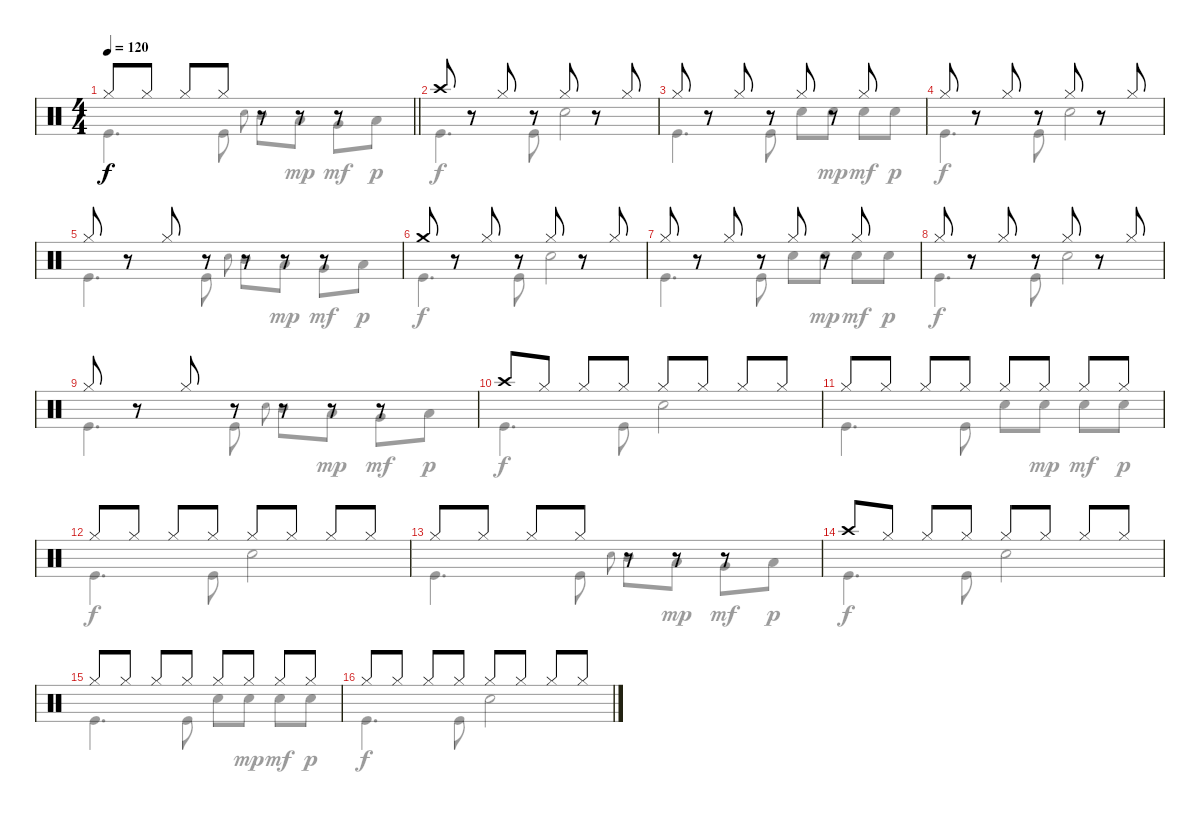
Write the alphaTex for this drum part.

\track "" {instrument percussion}
\staff {score}
\articulation defaults
\voice
\ts (4 4)
\tempo 120
\clef neutral
\barLineRight lightlight
\ks c "Hi-Hat (closed)".8{dy f} "Hi-Hat (closed)".8 "Hi-Hat (closed)".8 "Hi-Hat (closed)".8
r.8 r.8 r.8 |
"Crash high (hit)".8 r.8 "Hi-Hat (closed)".8 r.8 "Hi-Hat (closed)".8 r.8 "Hi-Hat (closed)".8 |
"Hi-Hat (closed)".8 r.8 "Hi-Hat (closed)".8 r.8 "Hi-Hat (closed)".8 r.8 "Hi-Hat (closed)".8 |
"Hi-Hat (closed)".8 r.8 "Hi-Hat (closed)".8 r.8 "Hi-Hat (closed)".8 r.8 "Hi-Hat (closed)".8 |
"Hi-Hat (closed)".8 r.8 "Hi-Hat (closed)".8 r.8 r.8 r.8 r.8 |
"Crash medium (hit)".8 r.8 "Hi-Hat (closed)".8 r.8 "Hi-Hat (closed)".8 r.8 "Hi-Hat (closed)".8 |
"Hi-Hat (closed)".8 r.8 "Hi-Hat (closed)".8 r.8 "Hi-Hat (closed)".8 r.8 "Hi-Hat (closed)".8 |
"Hi-Hat (closed)".8 r.8 "Hi-Hat (closed)".8 r.8 "Hi-Hat (closed)".8 r.8 "Hi-Hat (closed)".8 |
"Hi-Hat (closed)".8 r.8 "Hi-Hat (closed)".8 r.8 r.8 r.8 r.8 |
"Crash high (hit)".8 "Hi-Hat (closed)".8 "Hi-Hat (closed)".8 "Hi-Hat (closed)".8 "Hi-Hat (closed)".8 "Hi-Hat (closed)".8 "Hi-Hat (closed)".8 "Hi-Hat (closed)".8 |
"Hi-Hat (closed)".8 "Hi-Hat (closed)".8 "Hi-Hat (closed)".8 "Hi-Hat (closed)".8 "Hi-Hat (closed)".8 "Hi-Hat (closed)".8 "Hi-Hat (closed)".8 "Hi-Hat (closed)".8 |
"Hi-Hat (closed)".8 "Hi-Hat (closed)".8 "Hi-Hat (closed)".8 "Hi-Hat (closed)".8 "Hi-Hat (closed)".8 "Hi-Hat (closed)".8 "Hi-Hat (closed)".8 "Hi-Hat (closed)".8 |
"Hi-Hat (closed)".8 "Hi-Hat (closed)".8 "Hi-Hat (closed)".8 "Hi-Hat (closed)".8 r.8 r.8 r.8 |
"Crash high (hit)".8 "Hi-Hat (closed)".8 "Hi-Hat (closed)".8 "Hi-Hat (closed)".8 "Hi-Hat (closed)".8 "Hi-Hat (closed)".8 "Hi-Hat (closed)".8 "Hi-Hat (closed)".8 |
"Hi-Hat (closed)".8 "Hi-Hat (closed)".8 "Hi-Hat (closed)".8 "Hi-Hat (closed)".8 "Hi-Hat (closed)".8 "Hi-Hat (closed)".8 "Hi-Hat (closed)".8 "Hi-Hat (closed)".8 |
"Hi-Hat (closed)".8 "Hi-Hat (closed)".8 "Hi-Hat (closed)".8 "Hi-Hat (closed)".8 "Hi-Hat (closed)".8 "Hi-Hat (closed)".8 "Hi-Hat (closed)".8 "Hi-Hat (closed)".8
\voice
\clef neutral
\ottava regular
\simile none
\barLineRight lightlight
\ks c "Kick (hit)".4{d dy f} "Kick (hit)".8 "Snare (hit) 2".8{gr onbeat} "Mid Tom (hit)".8 "Low Tom (hit)".8{dy mp} "Very Low Tom (hit)".8{dy mf} "Low Floor Tom (hit)".8{dy p}
|
"Kick (hit)".4{d dy f} "Kick (hit)".8 "Snare (hit) 2".2 |
"Kick (hit)".4{d} "Kick (hit)".8 "Snare (hit) 2".8 "Snare (hit) 2".8{dy mp} "Snare (hit) 2".8{dy mf} "Snare (hit) 2".8{dy p} |
"Kick (hit)".4{d dy f} "Kick (hit)".8 "Snare (hit) 2".2 |
"Kick (hit)".4{d} "Kick (hit)".8 "Snare (hit) 2".8{gr onbeat} "Mid Tom (hit)".8 "Low Tom (hit)".8{dy mp} "Very Low Tom (hit)".8{dy mf} "Low Floor Tom (hit)".8{dy p} |
"Kick (hit)".4{d dy f} "Kick (hit)".8 "Snare (hit) 2".2 |
"Kick (hit)".4{d} "Kick (hit)".8 "Snare (hit) 2".8 "Snare (hit) 2".8{dy mp} "Snare (hit) 2".8{dy mf} "Snare (hit) 2".8{dy p} |
"Kick (hit)".4{d dy f} "Kick (hit)".8 "Snare (hit) 2".2 |
"Kick (hit)".4{d} "Kick (hit)".8 "Snare (hit) 2".8{gr onbeat} "Mid Tom (hit)".8 "Low Tom (hit)".8{dy mp} "Very Low Tom (hit)".8{dy mf} "Low Floor Tom (hit)".8{dy p} |
"Kick (hit)".4{d dy f} "Kick (hit)".8 "Snare (hit) 2".2 |
"Kick (hit)".4{d} "Kick (hit)".8 "Snare (hit) 2".8 "Snare (hit) 2".8{dy mp} "Snare (hit) 2".8{dy mf} "Snare (hit) 2".8{dy p} |
"Kick (hit)".4{d dy f} "Kick (hit)".8 "Snare (hit) 2".2 |
"Kick (hit)".4{d} "Kick (hit)".8 "Snare (hit) 2".8{gr onbeat} "Mid Tom (hit)".8 "Low Tom (hit)".8{dy mp} "Very Low Tom (hit)".8{dy mf} "Low Floor Tom (hit)".8{dy p} |
"Kick (hit)".4{d dy f} "Kick (hit)".8 "Snare (hit) 2".2 |
"Kick (hit)".4{d} "Kick (hit)".8 "Snare (hit) 2".8 "Snare (hit) 2".8{dy mp} "Snare (hit) 2".8{dy mf} "Snare (hit) 2".8{dy p} |
"Kick (hit)".4{d dy f} "Kick (hit)".8 "Snare (hit) 2".2
